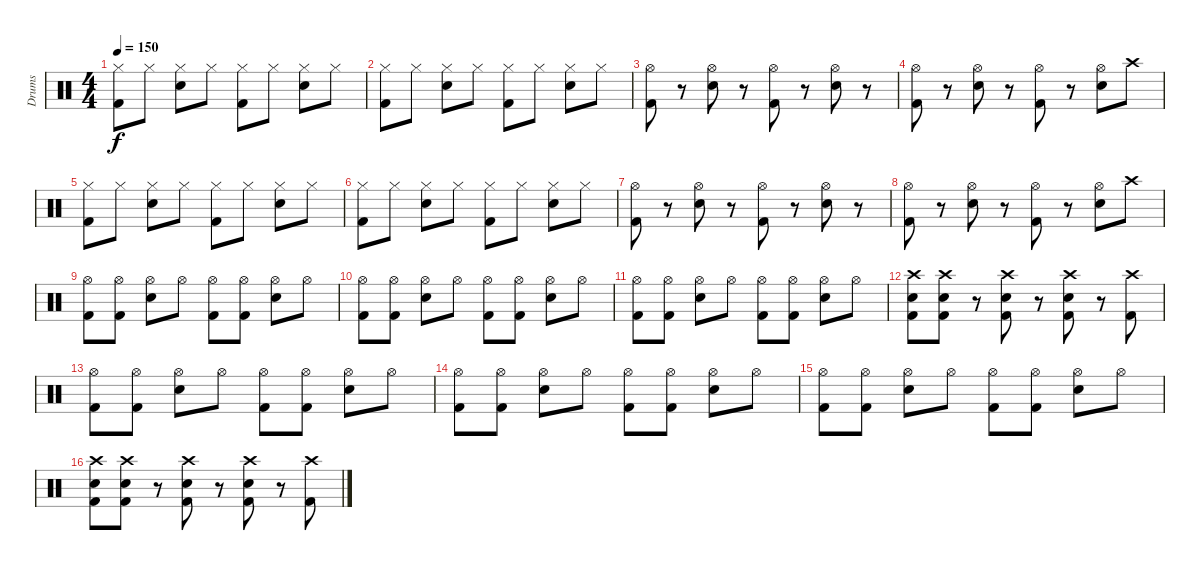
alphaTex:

\track ("Drums" "Drums") {instrument percussion}
\staff {score}
\articulation defaults
\ts (4 4)
\tempo 150
\clef neutral
\ks c
("Hi-Hat (closed)" "Kick (hit) 2").8{dy f} "Hi-Hat (closed)".8 ("Hi-Hat (closed)" "Electric Snare (hit)").8 "Hi-Hat (closed)".8 ("Hi-Hat (closed)" "Kick (hit) 2").8 "Hi-Hat (closed)".8 ("Hi-Hat (closed)" "Electric Snare (hit)").8 "Hi-Hat (closed)".8 |
("Hi-Hat (closed)" "Kick (hit) 2").8 "Hi-Hat (closed)".8 ("Hi-Hat (closed)" "Electric Snare (hit)").8 "Hi-Hat (closed)".8 ("Hi-Hat (closed)" "Kick (hit) 2").8 "Hi-Hat (closed)".8 ("Hi-Hat (closed)" "Electric Snare (hit)").8 "Hi-Hat (closed)".8 |
("Hi-Hat (open)" "Kick (hit) 2").8 r.8 ("Hi-Hat (open)" "Electric Snare (hit)").8 r.8 ("Hi-Hat (open)" "Kick (hit) 2").8 r.8 ("Hi-Hat (open)" "Electric Snare (hit)").8 r.8 |
("Hi-Hat (open)" "Kick (hit) 2").8 r.8 ("Hi-Hat (open)" "Electric Snare (hit)").8 r.8 ("Hi-Hat (open)" "Kick (hit) 2").8 r.8 ("Hi-Hat (open)" "Electric Snare (hit)").8 "Crash high (hit)".8 |
("Hi-Hat (closed)" "Kick (hit) 2").8 "Hi-Hat (closed)".8 ("Hi-Hat (closed)" "Electric Snare (hit)").8 "Hi-Hat (closed)".8 ("Hi-Hat (closed)" "Kick (hit) 2").8 "Hi-Hat (closed)".8 ("Hi-Hat (closed)" "Electric Snare (hit)").8 "Hi-Hat (closed)".8 |
("Hi-Hat (closed)" "Kick (hit) 2").8 "Hi-Hat (closed)".8 ("Hi-Hat (closed)" "Electric Snare (hit)").8 "Hi-Hat (closed)".8 ("Hi-Hat (closed)" "Kick (hit) 2").8 "Hi-Hat (closed)".8 ("Hi-Hat (closed)" "Electric Snare (hit)").8 "Hi-Hat (closed)".8 |
("Hi-Hat (open)" "Kick (hit) 2").8 r.8 ("Hi-Hat (open)" "Electric Snare (hit)").8 r.8 ("Hi-Hat (open)" "Kick (hit) 2").8 r.8 ("Hi-Hat (open)" "Electric Snare (hit)").8 r.8 |
("Hi-Hat (open)" "Kick (hit) 2").8 r.8 ("Hi-Hat (open)" "Electric Snare (hit)").8 r.8 ("Hi-Hat (open)" "Kick (hit) 2").8 r.8 ("Hi-Hat (open)" "Electric Snare (hit)").8 "Crash high (hit)".8 |
("Hi-Hat (open)" "Kick (hit) 2").8 ("Hi-Hat (open)" "Kick (hit) 2").8 ("Hi-Hat (open)" "Electric Snare (hit)").8 "Hi-Hat (open)".8 ("Hi-Hat (open)" "Kick (hit) 2").8 ("Hi-Hat (open)" "Kick (hit) 2").8 ("Hi-Hat (open)" "Electric Snare (hit)").8 "Hi-Hat (open)".8 |
("Hi-Hat (open)" "Kick (hit) 2").8 ("Hi-Hat (open)" "Kick (hit) 2").8 ("Hi-Hat (open)" "Electric Snare (hit)").8 "Hi-Hat (open)".8 ("Hi-Hat (open)" "Kick (hit) 2").8 ("Hi-Hat (open)" "Kick (hit) 2").8 ("Hi-Hat (open)" "Electric Snare (hit)").8 "Hi-Hat (open)".8 |
("Hi-Hat (open)" "Kick (hit) 2").8 ("Hi-Hat (open)" "Kick (hit) 2").8 ("Hi-Hat (open)" "Electric Snare (hit)").8 "Hi-Hat (open)".8 ("Hi-Hat (open)" "Kick (hit) 2").8 ("Hi-Hat (open)" "Kick (hit) 2").8 ("Hi-Hat (open)" "Electric Snare (hit)").8 "Hi-Hat (open)".8 |
("Crash high (hit)" "Electric Snare (hit)" "Kick (hit) 2").8 ("Crash high (hit)" "Electric Snare (hit)" "Kick (hit) 2").8 r.8 ("Crash high (hit)" "Electric Snare (hit)" "Kick (hit) 2").8 r.8 ("Crash high (hit)" "Electric Snare (hit)" "Kick (hit) 2").8 r.8 ("Crash high (hit)" "Kick (hit) 2").8 |
("Hi-Hat (open)" "Kick (hit) 2").8 ("Hi-Hat (open)" "Kick (hit) 2").8 ("Hi-Hat (open)" "Electric Snare (hit)").8 "Hi-Hat (open)".8 ("Hi-Hat (open)" "Kick (hit) 2").8 ("Hi-Hat (open)" "Kick (hit) 2").8 ("Hi-Hat (open)" "Electric Snare (hit)").8 "Hi-Hat (open)".8 |
("Hi-Hat (open)" "Kick (hit) 2").8 ("Hi-Hat (open)" "Kick (hit) 2").8 ("Hi-Hat (open)" "Electric Snare (hit)").8 "Hi-Hat (open)".8 ("Hi-Hat (open)" "Kick (hit) 2").8 ("Hi-Hat (open)" "Kick (hit) 2").8 ("Hi-Hat (open)" "Electric Snare (hit)").8 "Hi-Hat (open)".8 |
("Hi-Hat (open)" "Kick (hit) 2").8 ("Hi-Hat (open)" "Kick (hit) 2").8 ("Hi-Hat (open)" "Electric Snare (hit)").8 "Hi-Hat (open)".8 ("Hi-Hat (open)" "Kick (hit) 2").8 ("Hi-Hat (open)" "Kick (hit) 2").8 ("Hi-Hat (open)" "Electric Snare (hit)").8 "Hi-Hat (open)".8 |
("Crash high (hit)" "Electric Snare (hit)" "Kick (hit) 2").8 ("Crash high (hit)" "Electric Snare (hit)" "Kick (hit) 2").8 r.8 ("Crash high (hit)" "Electric Snare (hit)" "Kick (hit) 2").8 r.8 ("Crash high (hit)" "Electric Snare (hit)" "Kick (hit) 2").8 r.8 ("Crash high (hit)" "Kick (hit) 2").8
